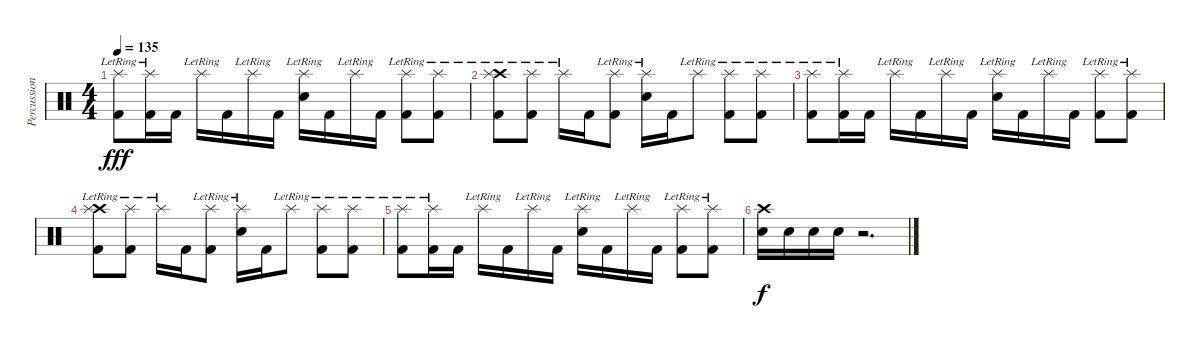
\track ("Percussion" "Percussion") {instrument percussion}
\staff {score}
\articulation defaults
\ts (4 4)
\tempo 135
\clef neutral
\ks c
("Splash (hit)"{lr} "Kick (hit) 2").8{dy fff} ("Splash (hit)"{lr} "Kick (hit) 2").16 "Kick (hit) 2".16 "Splash (hit)"{lr}.16 "Kick (hit) 2".16 "Splash (hit)"{lr}.16 "Kick (hit) 2".16 ("Splash (hit)"{lr} "Electric Snare (hit)").16 "Kick (hit) 2".16 "Splash (hit)"{lr}.16 "Kick (hit) 2".16 ("Splash (hit)"{lr} "Kick (hit) 2").8 ("Splash (hit)"{lr} "Kick (hit) 2").8 |
("Crash high (hit)"{lr} "Splash (hit)"{lr} "Kick (hit) 2").8 ("Splash (hit)"{lr} "Kick (hit) 2").8 "Splash (hit)"{lr}.16 "Kick (hit) 2".16 ("Splash (hit)"{lr} "Kick (hit) 2").8 ("Splash (hit)"{lr} "Electric Snare (hit)").16 "Kick (hit) 2".16 "Splash (hit)"{lr}.8 ("Splash (hit)"{lr} "Kick (hit) 2").8 ("Splash (hit)"{lr} "Kick (hit) 2").8 |
("Splash (hit)"{lr} "Kick (hit) 2").8 ("Splash (hit)"{lr} "Kick (hit) 2").16 "Kick (hit) 2".16 "Splash (hit)"{lr}.16 "Kick (hit) 2".16 "Splash (hit)"{lr}.16 "Kick (hit) 2".16 ("Splash (hit)"{lr} "Electric Snare (hit)").16 "Kick (hit) 2".16 "Splash (hit)"{lr}.16 "Kick (hit) 2".16 ("Splash (hit)"{lr} "Kick (hit) 2").8 ("Splash (hit)"{lr} "Kick (hit) 2").8 |
("Crash high (hit)"{lr} "Splash (hit)"{lr} "Kick (hit) 2").8 ("Splash (hit)"{lr} "Kick (hit) 2").8 "Splash (hit)"{lr}.16 "Kick (hit) 2".16 ("Splash (hit)"{lr} "Kick (hit) 2").8 ("Splash (hit)"{lr} "Electric Snare (hit)").16 "Kick (hit) 2".16 "Splash (hit)"{lr}.8 ("Splash (hit)"{lr} "Kick (hit) 2").8 ("Splash (hit)"{lr} "Kick (hit) 2").8 |
("Splash (hit)"{lr} "Kick (hit) 2").8 ("Splash (hit)"{lr} "Kick (hit) 2").16 "Kick (hit) 2".16 "Splash (hit)"{lr}.16 "Kick (hit) 2".16 "Splash (hit)"{lr}.16 "Kick (hit) 2".16 ("Splash (hit)"{lr} "Electric Snare (hit)").16 "Kick (hit) 2".16 "Splash (hit)"{lr}.16 "Kick (hit) 2".16 ("Splash (hit)"{lr} "Kick (hit) 2").8 ("Splash (hit)"{lr} "Kick (hit) 2").8 |
("Crash high (hit)" "Electric Snare (hit)").16{dy f} "Electric Snare (hit)".16 "Electric Snare (hit)".16 "Electric Snare (hit)".16 r.2{d}
